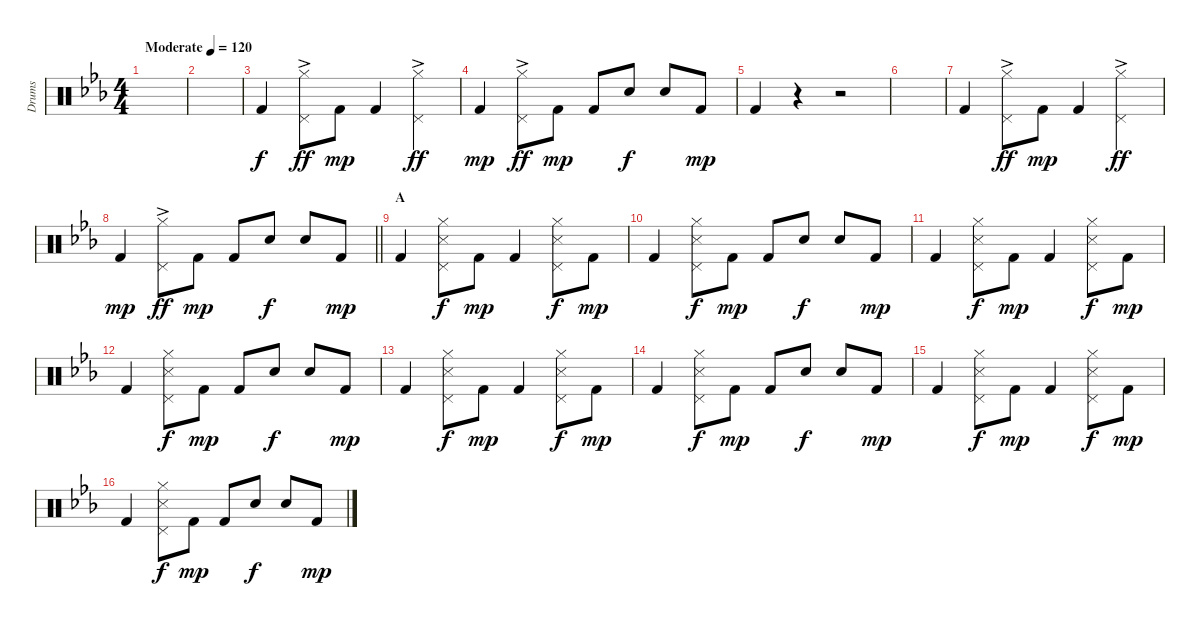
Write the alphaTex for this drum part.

\track ("Drums" "Drums") {instrument percussion}
\staff {score}
\articulation defaults
\ts (4 4)
\tempo (120 "Moderate")
\clef neutral
\ks eb
|
|
"Kick (hit) 2".4 ("Hi-Hat (closed)"{ac} "Pedal Hi-Hat (hit)"{ac}).8{dy ff} "Kick (hit) 2".8{dy mp} "Kick (hit) 2".4 ("Hi-Hat (closed)"{ac} "Pedal Hi-Hat (hit)"{ac}).4{dy ff} |
"Kick (hit) 2".4{dy mp} ("Hi-Hat (closed)"{ac} "Pedal Hi-Hat (hit)"{ac}).8{dy ff} "Kick (hit) 2".8{dy mp} "Kick (hit) 2".8 "Electric Snare (hit)".8{dy f} "Electric Snare (hit)".8 "Kick (hit) 2".8{dy mp} |
"Kick (hit) 2".4 r.4 r.2 |
|
"Kick (hit) 2".4 ("Hi-Hat (closed)"{ac} "Pedal Hi-Hat (hit)"{ac}).8{dy ff} "Kick (hit) 2".8{dy mp} "Kick (hit) 2".4 ("Hi-Hat (closed)"{ac} "Pedal Hi-Hat (hit)"{ac}).4{dy ff} |
\barLineRight lightlight "Kick (hit) 2".4{dy mp}
("Hi-Hat (closed)"{ac} "Pedal Hi-Hat (hit)"{ac}).8{dy ff} "Kick (hit) 2".8{dy mp} "Kick (hit) 2".8 "Electric Snare (hit)".8{dy f} "Electric Snare (hit)".8 "Kick (hit) 2".8{dy mp} |
\section ("" "A")
"Kick (hit) 2".4 ("Hi-Hat (closed)" "Metronome (hit)" "Pedal Hi-Hat (hit)").8{dy f} "Kick (hit) 2".8{dy mp} "Kick (hit) 2".4 ("Hi-Hat (closed)" "Metronome (hit)" "Pedal Hi-Hat (hit)").8{dy f} "Kick (hit) 2".8{dy mp} |
"Kick (hit) 2".4 ("Hi-Hat (closed)" "Metronome (hit)" "Pedal Hi-Hat (hit)").8{dy f} "Kick (hit) 2".8{dy mp} "Kick (hit) 2".8 "Electric Snare (hit)".8{dy f} "Electric Snare (hit)".8 "Kick (hit) 2".8{dy mp} |
"Kick (hit) 2".4 ("Hi-Hat (closed)" "Metronome (hit)" "Pedal Hi-Hat (hit)").8{dy f} "Kick (hit) 2".8{dy mp} "Kick (hit) 2".4 ("Hi-Hat (closed)" "Metronome (hit)" "Pedal Hi-Hat (hit)").8{dy f} "Kick (hit) 2".8{dy mp} |
"Kick (hit) 2".4 ("Hi-Hat (closed)" "Metronome (hit)" "Pedal Hi-Hat (hit)").8{dy f} "Kick (hit) 2".8{dy mp} "Kick (hit) 2".8 "Electric Snare (hit)".8{dy f} "Electric Snare (hit)".8 "Kick (hit) 2".8{dy mp} |
"Kick (hit) 2".4 ("Hi-Hat (closed)" "Metronome (hit)" "Pedal Hi-Hat (hit)").8{dy f} "Kick (hit) 2".8{dy mp} "Kick (hit) 2".4 ("Hi-Hat (closed)" "Metronome (hit)" "Pedal Hi-Hat (hit)").8{dy f} "Kick (hit) 2".8{dy mp} |
"Kick (hit) 2".4 ("Hi-Hat (closed)" "Metronome (hit)" "Pedal Hi-Hat (hit)").8{dy f} "Kick (hit) 2".8{dy mp} "Kick (hit) 2".8 "Electric Snare (hit)".8{dy f} "Electric Snare (hit)".8 "Kick (hit) 2".8{dy mp} |
"Kick (hit) 2".4 ("Hi-Hat (closed)" "Metronome (hit)" "Pedal Hi-Hat (hit)").8{dy f} "Kick (hit) 2".8{dy mp} "Kick (hit) 2".4 ("Hi-Hat (closed)" "Metronome (hit)" "Pedal Hi-Hat (hit)").8{dy f} "Kick (hit) 2".8{dy mp} |
"Kick (hit) 2".4 ("Hi-Hat (closed)" "Metronome (hit)" "Pedal Hi-Hat (hit)").8{dy f} "Kick (hit) 2".8{dy mp} "Kick (hit) 2".8 "Electric Snare (hit)".8{dy f} "Electric Snare (hit)".8 "Kick (hit) 2".8{dy mp}
